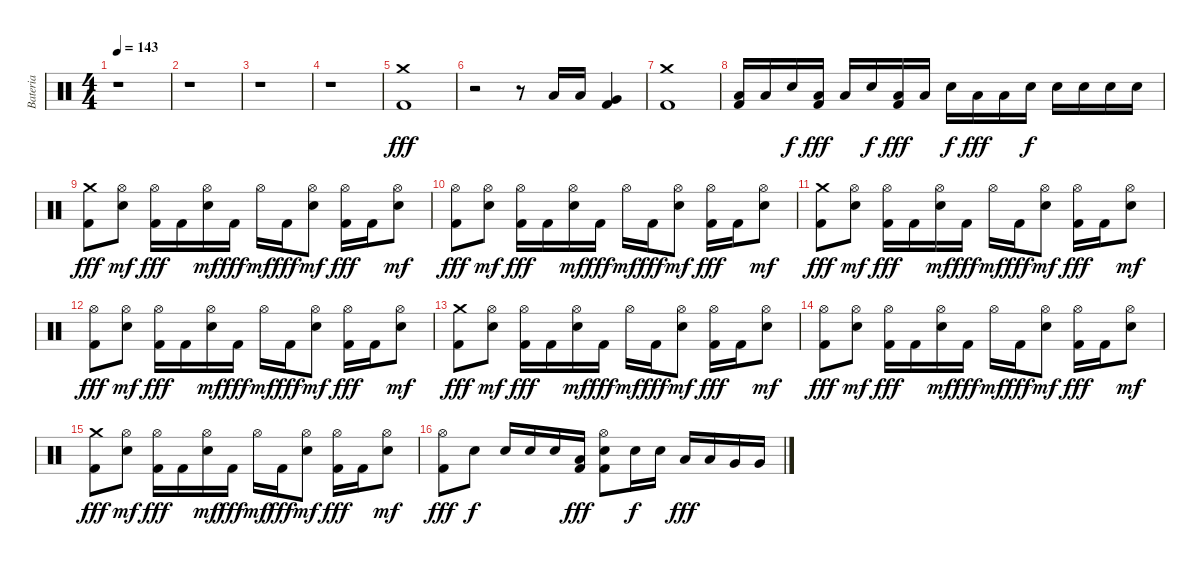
\track ("Bateria" "Bateria") {instrument percussion}
\staff {score}
\articulation defaults
\ts (4 4)
\tempo 143
\clef neutral
\ks c
r.1{dy fff} |
r.1 |
r.1 |
r.1 |
("Crash medium (hit)" "Kick (hit) 2").1 |
r.2 r.8 "Low Tom (hit)".16 "Low Tom (hit)".16 ("Very Low Tom (hit)" "Kick (hit) 2").4 |
("Crash medium (hit)" "Kick (hit) 2").1 |
("Low Tom (hit)" "Kick (hit) 2").16 "Low Tom (hit)".16 "Electric Snare (hit)".16{dy f} ("Low Tom (hit)" "Kick (hit) 2").16{dy fff} "Low Tom (hit)".16 "Electric Snare (hit)".16{dy f} ("Low Tom (hit)" "Kick (hit) 2").16{dy fff} "Low Tom (hit)".16 "Electric Snare (hit)".16{dy f} "Low Tom (hit)".16{dy fff} "Low Tom (hit)".16 "Electric Snare (hit)".16{dy f} "Electric Snare (hit)".16 "Electric Snare (hit)".16 "Electric Snare (hit)".16 "Electric Snare (hit)".16 |
("Crash medium (hit)" "Kick (hit) 2").8{dy fff} ("Hi-Hat (open)" "Electric Snare (hit)").8{dy mf} ("Hi-Hat (open)" "Kick (hit) 2").16{dy fff} "Kick (hit) 2".16 ("Hi-Hat (open)" "Electric Snare (hit)").16{dy mf} "Kick (hit) 2".16{dy fff} "Hi-Hat (open)".16{dy mf} "Kick (hit) 2".16{dy fff} ("Hi-Hat (open)" "Electric Snare (hit)").8{dy mf} ("Hi-Hat (open)" "Kick (hit) 2").16{dy fff} "Kick (hit) 2".16 ("Hi-Hat (open)" "Electric Snare (hit)").8{dy mf} |
("Hi-Hat (open)" "Kick (hit) 2").8{dy fff} ("Hi-Hat (open)" "Electric Snare (hit)").8{dy mf} ("Hi-Hat (open)" "Kick (hit) 2").16{dy fff} "Kick (hit) 2".16 ("Hi-Hat (open)" "Electric Snare (hit)").16{dy mf} "Kick (hit) 2".16{dy fff} "Hi-Hat (open)".16{dy mf} "Kick (hit) 2".16{dy fff} ("Hi-Hat (open)" "Electric Snare (hit)").8{dy mf} ("Hi-Hat (open)" "Kick (hit) 2").16{dy fff} "Kick (hit) 2".16 ("Hi-Hat (open)" "Electric Snare (hit)").8{dy mf} |
("Crash medium (hit)" "Kick (hit) 2").8{dy fff} ("Hi-Hat (open)" "Electric Snare (hit)").8{dy mf} ("Hi-Hat (open)" "Kick (hit) 2").16{dy fff} "Kick (hit) 2".16 ("Hi-Hat (open)" "Electric Snare (hit)").16{dy mf} "Kick (hit) 2".16{dy fff} "Hi-Hat (open)".16{dy mf} "Kick (hit) 2".16{dy fff} ("Hi-Hat (open)" "Electric Snare (hit)").8{dy mf} ("Hi-Hat (open)" "Kick (hit) 2").16{dy fff} "Kick (hit) 2".16 ("Hi-Hat (open)" "Electric Snare (hit)").8{dy mf} |
("Hi-Hat (open)" "Kick (hit) 2").8{dy fff} ("Hi-Hat (open)" "Electric Snare (hit)").8{dy mf} ("Hi-Hat (open)" "Kick (hit) 2").16{dy fff} "Kick (hit) 2".16 ("Hi-Hat (open)" "Electric Snare (hit)").16{dy mf} "Kick (hit) 2".16{dy fff} "Hi-Hat (open)".16{dy mf} "Kick (hit) 2".16{dy fff} ("Hi-Hat (open)" "Electric Snare (hit)").8{dy mf} ("Hi-Hat (open)" "Kick (hit) 2").16{dy fff} "Kick (hit) 2".16 ("Hi-Hat (open)" "Electric Snare (hit)").8{dy mf} |
("Crash medium (hit)" "Kick (hit) 2").8{dy fff} ("Hi-Hat (open)" "Electric Snare (hit)").8{dy mf} ("Hi-Hat (open)" "Kick (hit) 2").16{dy fff} "Kick (hit) 2".16 ("Hi-Hat (open)" "Electric Snare (hit)").16{dy mf} "Kick (hit) 2".16{dy fff} "Hi-Hat (open)".16{dy mf} "Kick (hit) 2".16{dy fff} ("Hi-Hat (open)" "Electric Snare (hit)").8{dy mf} ("Hi-Hat (open)" "Kick (hit) 2").16{dy fff} "Kick (hit) 2".16 ("Hi-Hat (open)" "Electric Snare (hit)").8{dy mf} |
("Hi-Hat (open)" "Kick (hit) 2").8{dy fff} ("Hi-Hat (open)" "Electric Snare (hit)").8{dy mf} ("Hi-Hat (open)" "Kick (hit) 2").16{dy fff} "Kick (hit) 2".16 ("Hi-Hat (open)" "Electric Snare (hit)").16{dy mf} "Kick (hit) 2".16{dy fff} "Hi-Hat (open)".16{dy mf} "Kick (hit) 2".16{dy fff} ("Hi-Hat (open)" "Electric Snare (hit)").8{dy mf} ("Hi-Hat (open)" "Kick (hit) 2").16{dy fff} "Kick (hit) 2".16 ("Hi-Hat (open)" "Electric Snare (hit)").8{dy mf} |
("Crash medium (hit)" "Kick (hit) 2").8{dy fff} ("Hi-Hat (open)" "Electric Snare (hit)").8{dy mf} ("Hi-Hat (open)" "Kick (hit) 2").16{dy fff} "Kick (hit) 2".16 ("Hi-Hat (open)" "Electric Snare (hit)").16{dy mf} "Kick (hit) 2".16{dy fff} "Hi-Hat (open)".16{dy mf} "Kick (hit) 2".16{dy fff} ("Hi-Hat (open)" "Electric Snare (hit)").8{dy mf} ("Hi-Hat (open)" "Kick (hit) 2").16{dy fff} "Kick (hit) 2".16 ("Hi-Hat (open)" "Electric Snare (hit)").8{dy mf} |
("Hi-Hat (open)" "Kick (hit) 2").8{dy fff} "Electric Snare (hit)".8{dy f} "Electric Snare (hit)".16 "Electric Snare (hit)".16 "Electric Snare (hit)".16 ("Low Tom (hit)" "Kick (hit) 2").16{dy fff} ("Hi-Hat (open)" "Electric Snare (hit)" "Kick (hit) 2").8 "Electric Snare (hit)".16{dy f} "Electric Snare (hit)".16 "Low Tom (hit)".16{dy fff} "Low Tom (hit)".16 "Very Low Tom (hit)".16 "Very Low Tom (hit)".16
